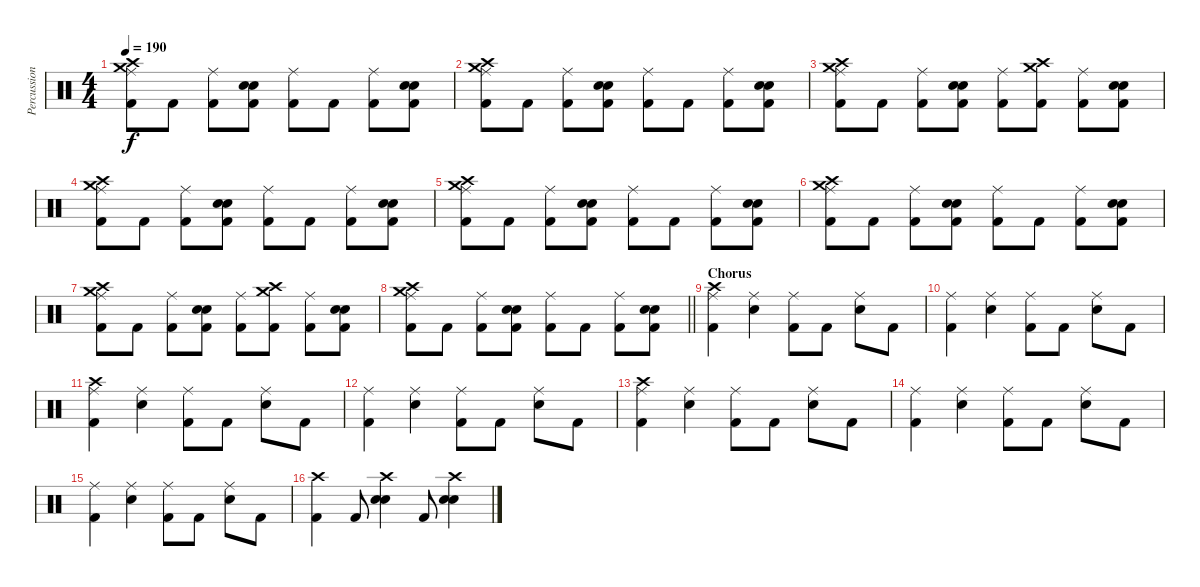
\track ("Percussion" "Percussion") {instrument percussion}
\staff {score}
\articulation defaults
\ts (4 4)
\tempo 190
\clef neutral
\ks c
("Ride (middle)" "Kick (hit) 2" "Crash medium (hit)" "Crash high (hit)").8{dy f} "Kick (hit) 2".8 ("Ride (middle)" "Kick (hit) 2").8 ("Electric Snare (hit)" "Snare (hit) 2" "Kick (hit) 2").8 ("Ride (middle)" "Kick (hit) 2").8 "Kick (hit) 2".8 ("Ride (middle)" "Kick (hit) 2").8 ("Electric Snare (hit)" "Snare (hit) 2" "Kick (hit) 2").8 |
("Ride (middle)" "Kick (hit) 2" "Crash medium (hit)" "Crash high (hit)").8 "Kick (hit) 2".8 ("Ride (middle)" "Kick (hit) 2").8 ("Electric Snare (hit)" "Snare (hit) 2" "Kick (hit) 2").8 ("Ride (middle)" "Kick (hit) 2").8 "Kick (hit) 2".8 ("Ride (middle)" "Kick (hit) 2").8 ("Electric Snare (hit)" "Snare (hit) 2" "Kick (hit) 2").8 |
("Ride (middle)" "Kick (hit) 2" "Crash medium (hit)" "Crash high (hit)").8 "Kick (hit) 2".8 ("Ride (middle)" "Kick (hit) 2").8 ("Electric Snare (hit)" "Snare (hit) 2" "Kick (hit) 2").8 ("Ride (middle)" "Kick (hit) 2").8 ("Kick (hit) 2" "Crash medium (hit)" "Crash high (hit)").8 ("Ride (middle)" "Kick (hit) 2").8 ("Electric Snare (hit)" "Snare (hit) 2" "Kick (hit) 2").8 |
("Ride (middle)" "Kick (hit) 2" "Crash medium (hit)" "Crash high (hit)").8 "Kick (hit) 2".8 ("Ride (middle)" "Kick (hit) 2").8 ("Electric Snare (hit)" "Snare (hit) 2" "Kick (hit) 2").8 ("Ride (middle)" "Kick (hit) 2").8 "Kick (hit) 2".8 ("Ride (middle)" "Kick (hit) 2").8 ("Electric Snare (hit)" "Snare (hit) 2" "Kick (hit) 2").8 |
("Ride (middle)" "Kick (hit) 2" "Crash medium (hit)" "Crash high (hit)").8 "Kick (hit) 2".8 ("Ride (middle)" "Kick (hit) 2").8 ("Electric Snare (hit)" "Snare (hit) 2" "Kick (hit) 2").8 ("Ride (middle)" "Kick (hit) 2").8 "Kick (hit) 2".8 ("Ride (middle)" "Kick (hit) 2").8 ("Electric Snare (hit)" "Snare (hit) 2" "Kick (hit) 2").8 |
("Ride (middle)" "Kick (hit) 2" "Crash medium (hit)" "Crash high (hit)").8 "Kick (hit) 2".8 ("Ride (middle)" "Kick (hit) 2").8 ("Electric Snare (hit)" "Snare (hit) 2" "Kick (hit) 2").8 ("Ride (middle)" "Kick (hit) 2").8 "Kick (hit) 2".8 ("Ride (middle)" "Kick (hit) 2").8 ("Electric Snare (hit)" "Snare (hit) 2" "Kick (hit) 2").8 |
("Ride (middle)" "Kick (hit) 2" "Crash medium (hit)" "Crash high (hit)").8 "Kick (hit) 2".8 ("Ride (middle)" "Kick (hit) 2").8 ("Electric Snare (hit)" "Snare (hit) 2" "Kick (hit) 2").8 ("Ride (middle)" "Kick (hit) 2").8 ("Kick (hit) 2" "Crash medium (hit)" "Crash high (hit)").8 ("Ride (middle)" "Kick (hit) 2").8 ("Electric Snare (hit)" "Snare (hit) 2" "Kick (hit) 2").8 |
\barLineRight lightlight
("Ride (middle)" "Kick (hit) 2" "Crash medium (hit)" "Crash high (hit)").8 "Kick (hit) 2".8 ("Ride (middle)" "Kick (hit) 2").8 ("Electric Snare (hit)" "Snare (hit) 2" "Kick (hit) 2").8 ("Ride (middle)" "Kick (hit) 2").8 "Kick (hit) 2".8 ("Ride (middle)" "Kick (hit) 2").8 ("Electric Snare (hit)" "Snare (hit) 2" "Kick (hit) 2").8 |
\section ("" "Chorus")
("Ride (middle)" "Kick (hit) 2" "Crash high (hit)").4 ("Ride (middle)" "Snare (hit) 2").4 ("Ride (middle)" "Kick (hit) 2").8 "Kick (hit) 2".8 ("Ride (middle)" "Snare (hit) 2").8 "Kick (hit) 2".8 |
("Ride (middle)" "Kick (hit) 2").4 ("Ride (middle)" "Snare (hit) 2").4 ("Ride (middle)" "Kick (hit) 2").8 "Kick (hit) 2".8 ("Ride (middle)" "Snare (hit) 2").8 "Kick (hit) 2".8 |
("Ride (middle)" "Kick (hit) 2" "Crash high (hit)").4 ("Ride (middle)" "Snare (hit) 2").4 ("Ride (middle)" "Kick (hit) 2").8 "Kick (hit) 2".8 ("Ride (middle)" "Snare (hit) 2").8 "Kick (hit) 2".8 |
("Ride (middle)" "Kick (hit) 2").4 ("Ride (middle)" "Snare (hit) 2").4 ("Ride (middle)" "Kick (hit) 2").8 "Kick (hit) 2".8 ("Ride (middle)" "Snare (hit) 2").8 "Kick (hit) 2".8 |
("Ride (middle)" "Kick (hit) 2" "Crash high (hit)").4 ("Ride (middle)" "Snare (hit) 2").4 ("Ride (middle)" "Kick (hit) 2").8 "Kick (hit) 2".8 ("Ride (middle)" "Snare (hit) 2").8 "Kick (hit) 2".8 |
("Ride (middle)" "Kick (hit) 2").4 ("Ride (middle)" "Snare (hit) 2").4 ("Ride (middle)" "Kick (hit) 2").8 "Kick (hit) 2".8 ("Ride (middle)" "Snare (hit) 2").8 "Kick (hit) 2".8 |
("Ride (middle)" "Kick (hit) 2").4 ("Ride (middle)" "Snare (hit) 2").4 ("Ride (middle)" "Kick (hit) 2").8 "Kick (hit) 2".8 ("Ride (middle)" "Snare (hit) 2").8 "Kick (hit) 2".8 |
("Kick (hit) 2" "Crash high (hit)").4 "Kick (hit) 2".8 ("Electric Snare (hit)" "Snare (hit) 2" "Crash high (hit)").4 "Kick (hit) 2".8 ("Electric Snare (hit)" "Snare (hit) 2" "Crash high (hit)").4
